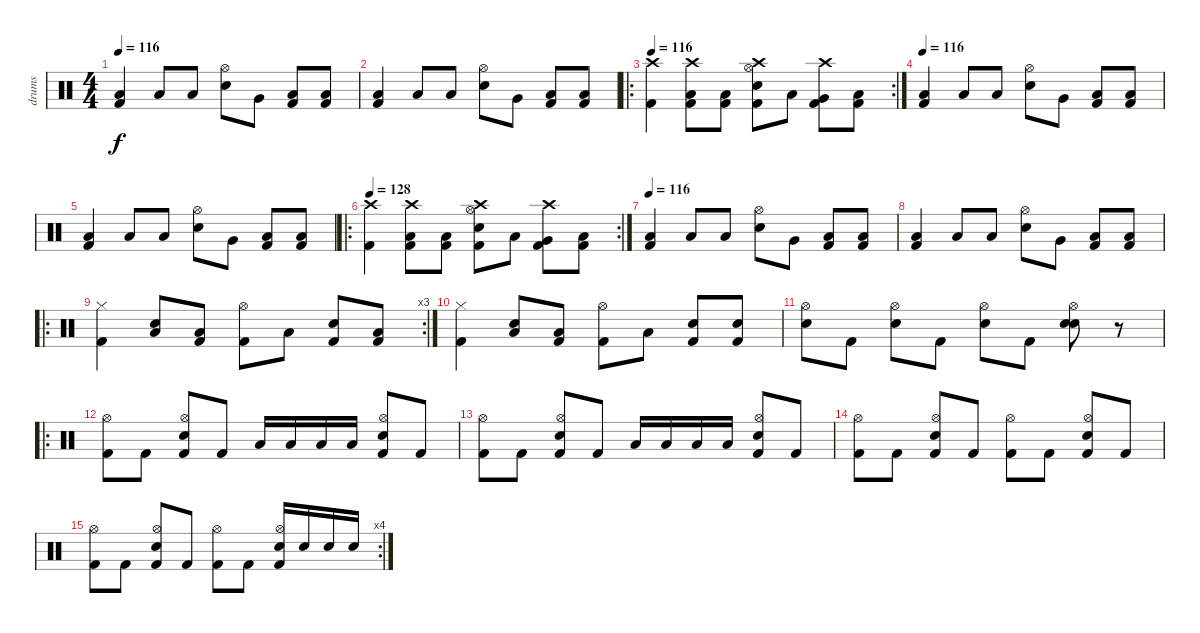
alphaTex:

\track ("drums" "drums") {instrument percussion}
\staff {score}
\articulation defaults
\ts (4 4)
\tempo 116
\clef neutral
\ks c
("Low Floor Tom (hit)" "Kick (hit) 2").4{dy f} "Low Floor Tom (hit)".8 "Low Floor Tom (hit)".8 ("Hi-Hat (open)" "Electric Snare (hit)").8 "Very Low Tom (hit)".8 ("Low Floor Tom (hit)" "Kick (hit) 2").8 ("Low Floor Tom (hit)" "Kick (hit) 2").8 |
("Low Floor Tom (hit)" "Kick (hit) 2").4 "Low Floor Tom (hit)".8 "Low Floor Tom (hit)".8 ("Hi-Hat (open)" "Electric Snare (hit)").8 "Very Low Tom (hit)".8 ("Low Floor Tom (hit)" "Kick (hit) 2").8 ("Low Floor Tom (hit)" "Kick (hit) 2").8 |
\ro
\rc 2
\tempo 116
("Crash high (hit)" "Kick (hit) 2").4 ("Crash high (hit)" "Low Floor Tom (hit)" "Kick (hit) 2").8 ("Low Floor Tom (hit)" "Kick (hit) 2").8 ("Crash high (hit)" "Hi-Hat (open)" "Electric Snare (hit)" "Kick (hit) 2").8 "Low Floor Tom (hit)".8 ("Crash high (hit)" "Very Low Tom (hit)" "Kick (hit) 2").8 ("Low Floor Tom (hit)" "Kick (hit) 2").8 |
\tempo 116
("Low Floor Tom (hit)" "Kick (hit) 2").4 "Low Floor Tom (hit)".8 "Low Floor Tom (hit)".8 ("Hi-Hat (open)" "Electric Snare (hit)").8 "Very Low Tom (hit)".8 ("Low Floor Tom (hit)" "Kick (hit) 2").8 ("Low Floor Tom (hit)" "Kick (hit) 2").8 |
("Low Floor Tom (hit)" "Kick (hit) 2").4 "Low Floor Tom (hit)".8 "Low Floor Tom (hit)".8 ("Hi-Hat (open)" "Electric Snare (hit)").8 "Very Low Tom (hit)".8 ("Low Floor Tom (hit)" "Kick (hit) 2").8 ("Low Floor Tom (hit)" "Kick (hit) 2").8 |
\ro
\rc 2
\tempo 128
("Crash high (hit)" "Kick (hit) 2").4 ("Crash high (hit)" "Low Floor Tom (hit)" "Kick (hit) 2").8 ("Low Floor Tom (hit)" "Kick (hit) 2").8 ("Crash high (hit)" "Hi-Hat (open)" "Electric Snare (hit)" "Kick (hit) 2").8 "Low Floor Tom (hit)".8 ("Crash high (hit)" "Very Low Tom (hit)" "Kick (hit) 2").8 ("Low Floor Tom (hit)" "Kick (hit) 2").8 |
\tempo 116
("Low Floor Tom (hit)" "Kick (hit) 2").4 "Low Floor Tom (hit)".8 "Low Floor Tom (hit)".8 ("Hi-Hat (open)" "Electric Snare (hit)").8 "Very Low Tom (hit)".8 ("Low Floor Tom (hit)" "Kick (hit) 2").8 ("Low Floor Tom (hit)" "Kick (hit) 2").8 |
("Low Floor Tom (hit)" "Kick (hit) 2").4 "Low Floor Tom (hit)".8 "Low Floor Tom (hit)".8 ("Hi-Hat (open)" "Electric Snare (hit)").8 "Very Low Tom (hit)".8 ("Low Floor Tom (hit)" "Kick (hit) 2").8 ("Low Floor Tom (hit)" "Kick (hit) 2").8 |
\ro
\rc 3
("Hi-Hat (closed)" "Kick (hit) 2").4 ("Electric Snare (hit)" "Low Floor Tom (hit)").8 ("Low Floor Tom (hit)" "Kick (hit) 2").8 ("Hi-Hat (open)" "Kick (hit) 2").8 "Low Floor Tom (hit)".8 ("Electric Snare (hit)" "Kick (hit) 2").8 ("Low Floor Tom (hit)" "Kick (hit) 2").8 |
("Hi-Hat (closed)" "Kick (hit) 2").4 ("Electric Snare (hit)" "Low Floor Tom (hit)").8 ("Low Floor Tom (hit)" "Kick (hit) 2").8 ("Hi-Hat (open)" "Kick (hit) 2").8 "Low Floor Tom (hit)".8 ("Electric Snare (hit)" "Kick (hit) 2").8 ("Electric Snare (hit)" "Kick (hit) 2").8 |
("Hi-Hat (open)" "Electric Snare (hit)").8 "Kick (hit) 2".8 ("Hi-Hat (open)" "Electric Snare (hit)").8 "Kick (hit) 2".8 ("Hi-Hat (open)" "Electric Snare (hit)").8 "Kick (hit) 2".8 ("Hi-Hat (open)" "Electric Snare (hit)" "Snare (hit) 2").8 r.8 |
\ro
("Hi-Hat (open)" "Kick (hit) 2").8 "Kick (hit) 2".8 ("Hi-Hat (open)" "Electric Snare (hit)" "Kick (hit) 2").8 "Kick (hit) 2".8 "Low Floor Tom (hit)".16 "Low Floor Tom (hit)".16 "Low Floor Tom (hit)".16 "Low Floor Tom (hit)".16 ("Hi-Hat (open)" "Electric Snare (hit)" "Kick (hit) 2").8 "Kick (hit) 2".8 |
("Hi-Hat (open)" "Kick (hit) 2").8 "Kick (hit) 2".8 ("Hi-Hat (open)" "Electric Snare (hit)" "Kick (hit) 2").8 "Kick (hit) 2".8 "Low Floor Tom (hit)".16 "Low Floor Tom (hit)".16 "Low Floor Tom (hit)".16 "Low Floor Tom (hit)".16 ("Hi-Hat (open)" "Electric Snare (hit)" "Kick (hit) 2").8 "Kick (hit) 2".8 |
("Hi-Hat (open)" "Kick (hit) 2").8 "Kick (hit) 2".8 ("Hi-Hat (open)" "Electric Snare (hit)" "Kick (hit) 2").8 "Kick (hit) 2".8 ("Hi-Hat (open)" "Kick (hit) 2").8 "Kick (hit) 2".8 ("Hi-Hat (open)" "Electric Snare (hit)" "Kick (hit) 2").8 "Kick (hit) 2".8 |
\rc 4
("Hi-Hat (open)" "Kick (hit) 2").8 "Kick (hit) 2".8 ("Hi-Hat (open)" "Electric Snare (hit)" "Kick (hit) 2").8 "Kick (hit) 2".8 ("Hi-Hat (open)" "Kick (hit) 2").8 "Kick (hit) 2".8 ("Hi-Hat (open)" "Electric Snare (hit)" "Kick (hit) 2").16 "Electric Snare (hit)".16 "Electric Snare (hit)".16 "Electric Snare (hit)".16
